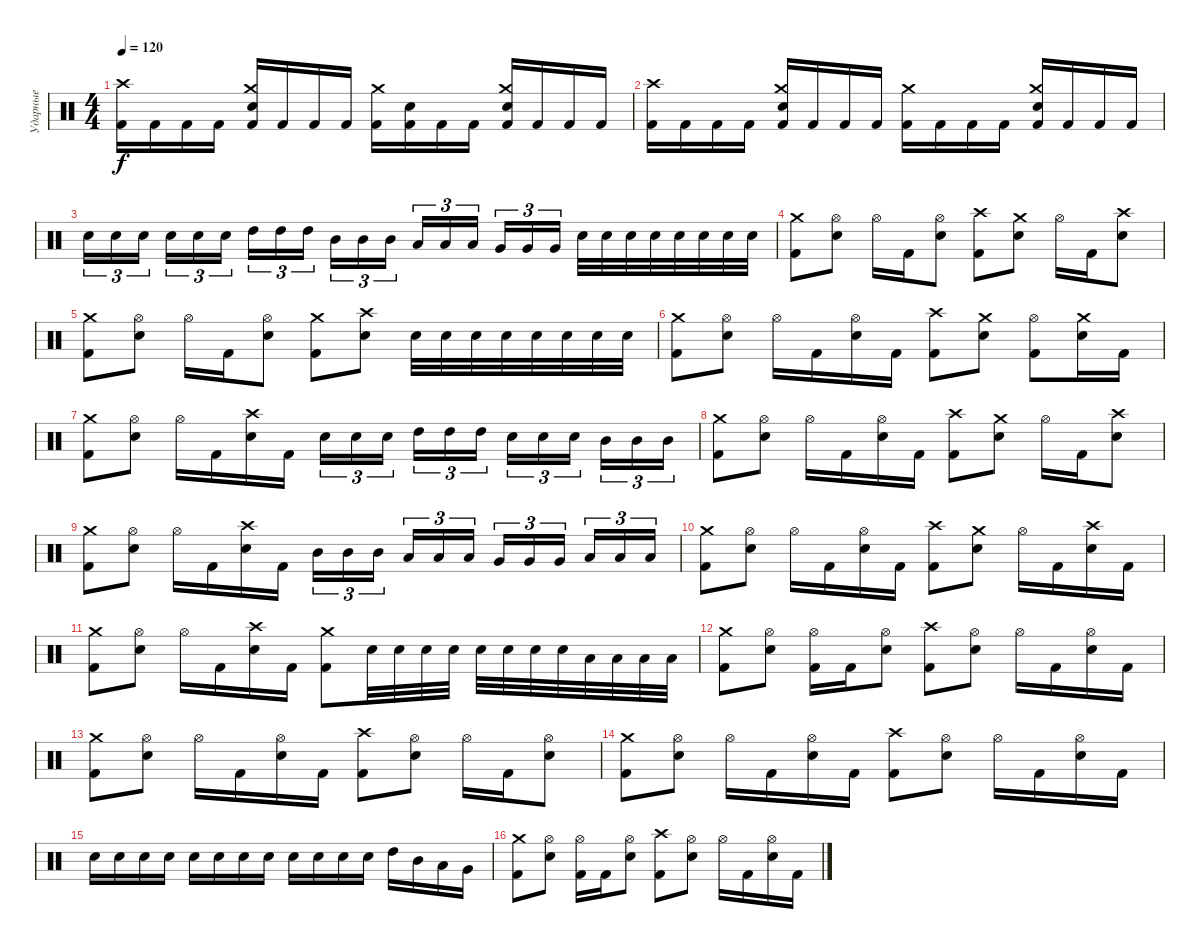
\track ("Ударные" "Ударные") {instrument percussion}
\staff {score}
\articulation defaults
\ts (4 4)
\tempo 120
\clef neutral
\ks c
("Crash high (hit)" "Kick (hit) 2").16{dy f} "Kick (hit) 2".16 "Kick (hit) 2".16 "Kick (hit) 2".16 ("Crash medium (hit)" "Electric Snare (hit)" "Kick (hit) 2").16 "Kick (hit) 2".16 "Kick (hit) 2".16 "Kick (hit) 2".16 ("Crash medium (hit)" "Kick (hit) 2").16 ("Electric Snare (hit)" "Kick (hit) 2").16 "Kick (hit) 2".16 "Kick (hit) 2".16 ("Crash medium (hit)" "Electric Snare (hit)" "Kick (hit) 2").16 "Kick (hit) 2".16 "Kick (hit) 2".16 "Kick (hit) 2".16 |
("Crash high (hit)" "Kick (hit) 2").16 "Kick (hit) 2".16 "Kick (hit) 2".16 "Kick (hit) 2".16 ("Crash medium (hit)" "Electric Snare (hit)" "Kick (hit) 2").16 "Kick (hit) 2".16 "Kick (hit) 2".16 "Kick (hit) 2".16 ("Crash medium (hit)" "Kick (hit) 2").16 "Kick (hit) 2".16 "Kick (hit) 2".16 "Kick (hit) 2".16 ("Crash medium (hit)" "Electric Snare (hit)" "Kick (hit) 2").16 "Kick (hit) 2".16 "Kick (hit) 2".16 "Kick (hit) 2".16 |
"Electric Snare (hit)".16{tu (3 2)} "Electric Snare (hit)".16{tu (3 2)} "Electric Snare (hit)".16{tu (3 2) beam splitsecondary} "Electric Snare (hit)".16{tu (3 2)} "Electric Snare (hit)".16{tu (3 2)} "Electric Snare (hit)".16{tu (3 2)} "High Tom (hit)".16{tu (3 2)} "High Tom (hit)".16{tu (3 2)} "High Tom (hit)".16{tu (3 2) beam splitsecondary} "Mid Tom (hit)".16{tu (3 2)} "Mid Tom (hit)".16{tu (3 2)} "Mid Tom (hit)".16{tu (3 2)} "Low Tom (hit)".16{tu (3 2)} "Low Tom (hit)".16{tu (3 2)} "Low Tom (hit)".16{tu (3 2) beam splitsecondary} "Very Low Tom (hit)".16{tu (3 2)} "Very Low Tom (hit)".16{tu (3 2)} "Very Low Tom (hit)".16{tu (3 2)} "Electric Snare (hit)".32 "Electric Snare (hit)".32 "Electric Snare (hit)".32 "Electric Snare (hit)".32 "Electric Snare (hit)".32 "Electric Snare (hit)".32 "Electric Snare (hit)".32 "Electric Snare (hit)".32 |
("Crash medium (hit)" "Kick (hit) 2").8 ("Hi-Hat (open)" "Electric Snare (hit)").8 "Hi-Hat (open)".16 "Kick (hit) 2".16 ("Hi-Hat (open)" "Electric Snare (hit)").8 ("Crash high (hit)" "Kick (hit) 2").8 ("Crash medium (hit)" "Electric Snare (hit)").8 "Hi-Hat (open)".16 "Kick (hit) 2".16 ("Crash high (hit)" "Electric Snare (hit)").8 |
("Crash medium (hit)" "Kick (hit) 2").8 ("Hi-Hat (open)" "Electric Snare (hit)").8 "Hi-Hat (open)".16 "Kick (hit) 2".16 ("Hi-Hat (open)" "Electric Snare (hit)").8 ("Crash medium (hit)" "Kick (hit) 2").8 ("Crash high (hit)" "Electric Snare (hit)").8 "Electric Snare (hit)".32 "Electric Snare (hit)".32 "Electric Snare (hit)".32 "Electric Snare (hit)".32 "Electric Snare (hit)".32 "Electric Snare (hit)".32 "Electric Snare (hit)".32 "Electric Snare (hit)".32 |
("Crash medium (hit)" "Kick (hit) 2").8 ("Hi-Hat (open)" "Electric Snare (hit)").8 "Hi-Hat (open)".16 "Kick (hit) 2".16 ("Hi-Hat (open)" "Electric Snare (hit)").16 "Kick (hit) 2".16 ("Crash high (hit)" "Kick (hit) 2").8 ("Crash medium (hit)" "Electric Snare (hit)").8 ("Hi-Hat (open)" "Kick (hit) 2").8 ("Crash medium (hit)" "Electric Snare (hit)").16 "Kick (hit) 2".16 |
("Crash medium (hit)" "Kick (hit) 2").8 ("Hi-Hat (open)" "Electric Snare (hit)").8 "Hi-Hat (open)".16 "Kick (hit) 2".16 ("Crash high (hit)" "Electric Snare (hit)").16 "Kick (hit) 2".16 "Electric Snare (hit)".16{tu (3 2)} "Electric Snare (hit)".16{tu (3 2)} "Electric Snare (hit)".16{tu (3 2) beam splitsecondary} "High Tom (hit)".16{tu (3 2)} "High Tom (hit)".16{tu (3 2)} "High Tom (hit)".16{tu (3 2)} "Electric Snare (hit)".16{tu (3 2)} "Electric Snare (hit)".16{tu (3 2)} "Electric Snare (hit)".16{tu (3 2) beam splitsecondary} "Mid Tom (hit)".16{tu (3 2)} "Mid Tom (hit)".16{tu (3 2)} "Mid Tom (hit)".16{tu (3 2)} |
("Crash medium (hit)" "Kick (hit) 2").8 ("Hi-Hat (open)" "Electric Snare (hit)").8 "Hi-Hat (open)".16 "Kick (hit) 2".16 ("Hi-Hat (open)" "Electric Snare (hit)").16 "Kick (hit) 2".16 ("Crash high (hit)" "Kick (hit) 2").8 ("Crash medium (hit)" "Electric Snare (hit)").8 "Hi-Hat (open)".16 "Kick (hit) 2".16 ("Crash high (hit)" "Electric Snare (hit)").8 |
("Crash medium (hit)" "Kick (hit) 2").8 ("Hi-Hat (open)" "Electric Snare (hit)").8 "Hi-Hat (open)".16 "Kick (hit) 2".16 ("Crash high (hit)" "Electric Snare (hit)").16 "Kick (hit) 2".16 "Mid Tom (hit)".16{tu (3 2)} "Mid Tom (hit)".16{tu (3 2)} "Mid Tom (hit)".16{tu (3 2) beam splitsecondary} "Low Tom (hit)".16{tu (3 2)} "Low Tom (hit)".16{tu (3 2)} "Low Tom (hit)".16{tu (3 2)} "Very Low Tom (hit)".16{tu (3 2)} "Very Low Tom (hit)".16{tu (3 2)} "Very Low Tom (hit)".16{tu (3 2) beam splitsecondary} "Low Floor Tom (hit)".16{tu (3 2)} "Low Floor Tom (hit)".16{tu (3 2)} "Low Floor Tom (hit)".16{tu (3 2)} |
("Crash medium (hit)" "Kick (hit) 2").8 ("Hi-Hat (open)" "Electric Snare (hit)").8 "Hi-Hat (open)".16 "Kick (hit) 2".16 ("Hi-Hat (open)" "Electric Snare (hit)").16 "Kick (hit) 2".16 ("Crash high (hit)" "Kick (hit) 2").8 ("Crash medium (hit)" "Electric Snare (hit)").8 "Hi-Hat (open)".16 "Kick (hit) 2".16 ("Crash high (hit)" "Electric Snare (hit)").16 "Kick (hit) 2".16 |
("Crash medium (hit)" "Kick (hit) 2").8 ("Hi-Hat (open)" "Electric Snare (hit)").8 "Hi-Hat (open)".16 "Kick (hit) 2".16 ("Crash high (hit)" "Electric Snare (hit)").16 "Kick (hit) 2".16 ("Crash medium (hit)" "Kick (hit) 2").8 "Electric Snare (hit)".32 "Electric Snare (hit)".32 "Electric Snare (hit)".32 "Electric Snare (hit)".32 "Electric Snare (hit)".32 "Electric Snare (hit)".32 "Electric Snare (hit)".32 "Electric Snare (hit)".32 "Low Tom (hit)".32 "Low Tom (hit)".32 "Low Tom (hit)".32 "Low Tom (hit)".32 |
("Crash medium (hit)" "Kick (hit) 2").8 ("Hi-Hat (open)" "Electric Snare (hit)").8 ("Hi-Hat (open)" "Kick (hit) 2").16 "Kick (hit) 2".16 ("Hi-Hat (open)" "Electric Snare (hit)").8 ("Crash high (hit)" "Kick (hit) 2").8 ("Hi-Hat (open)" "Electric Snare (hit)").8 "Hi-Hat (open)".16 "Kick (hit) 2".16 ("Hi-Hat (open)" "Electric Snare (hit)").16 "Kick (hit) 2".16 |
("Crash medium (hit)" "Kick (hit) 2").8 ("Hi-Hat (open)" "Electric Snare (hit)").8 "Hi-Hat (open)".16 "Kick (hit) 2".16 ("Hi-Hat (open)" "Electric Snare (hit)").16 "Kick (hit) 2".16 ("Crash high (hit)" "Kick (hit) 2").8 ("Hi-Hat (open)" "Electric Snare (hit)").8 "Hi-Hat (open)".16 "Kick (hit) 2".16 ("Hi-Hat (open)" "Electric Snare (hit)").8 |
("Crash medium (hit)" "Kick (hit) 2").8 ("Hi-Hat (open)" "Electric Snare (hit)").8 "Hi-Hat (open)".16 "Kick (hit) 2".16 ("Hi-Hat (open)" "Electric Snare (hit)").16 "Kick (hit) 2".16 ("Crash high (hit)" "Kick (hit) 2").8 ("Hi-Hat (open)" "Electric Snare (hit)").8 "Hi-Hat (open)".16 "Kick (hit) 2".16 ("Hi-Hat (open)" "Electric Snare (hit)").16 "Kick (hit) 2".16 |
"Electric Snare (hit)".16 "Electric Snare (hit)".16 "Electric Snare (hit)".16 "Electric Snare (hit)".16 "Electric Snare (hit)".16 "Electric Snare (hit)".16 "Electric Snare (hit)".16 "Electric Snare (hit)".16 "Electric Snare (hit)".16 "Electric Snare (hit)".16 "Electric Snare (hit)".16 "Electric Snare (hit)".16 "High Tom (hit)".16 "Mid Tom (hit)".16 "Low Tom (hit)".16 "Very Low Tom (hit)".16 |
("Crash medium (hit)" "Kick (hit) 2").8 ("Hi-Hat (open)" "Electric Snare (hit)").8 ("Hi-Hat (open)" "Kick (hit) 2").16 "Kick (hit) 2".16 ("Hi-Hat (open)" "Electric Snare (hit)").8 ("Crash high (hit)" "Kick (hit) 2").8 ("Hi-Hat (open)" "Electric Snare (hit)").8 "Hi-Hat (open)".16 "Kick (hit) 2".16 ("Hi-Hat (open)" "Electric Snare (hit)").16 "Kick (hit) 2".16
